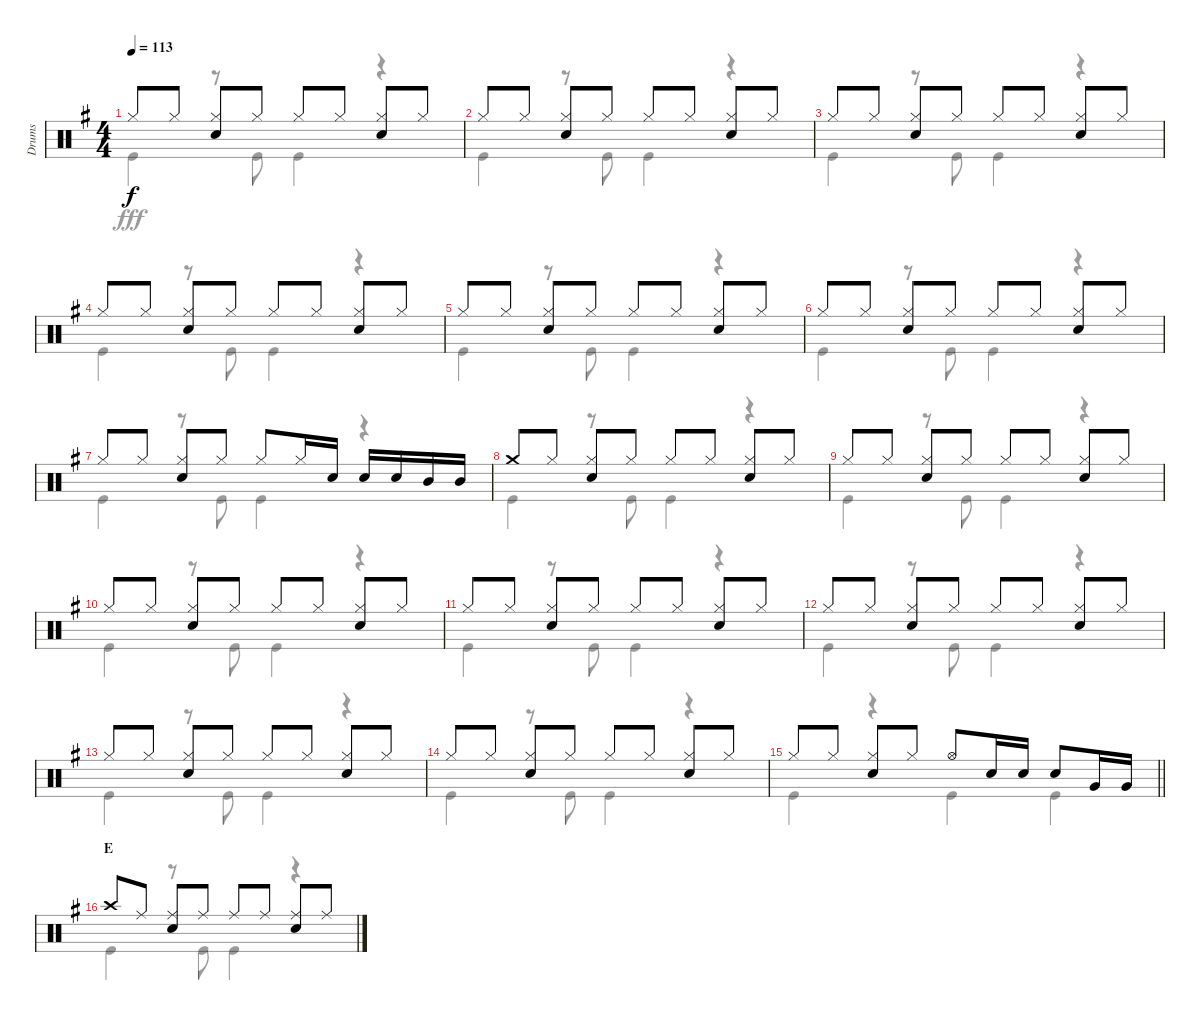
\track ("Drums" "Drums") {instrument percussion}
\staff {score}
\articulation defaults
\voice
\ts (4 4)
\tempo 113
\clef neutral
\ks g "Hi-Hat (closed)".8{dy f} "Hi-Hat (closed)".8
("Hi-Hat (closed)" "Snare (hit) 2").8 "Hi-Hat (closed)".8 "Hi-Hat (closed)".8 "Hi-Hat (closed)".8 ("Hi-Hat (closed)" "Snare (hit) 2").8 "Hi-Hat (closed)".8 |
"Hi-Hat (closed)".8 "Hi-Hat (closed)".8 ("Hi-Hat (closed)" "Snare (hit) 2").8 "Hi-Hat (closed)".8 "Hi-Hat (closed)".8 "Hi-Hat (closed)".8 ("Hi-Hat (closed)" "Snare (hit) 2").8 "Hi-Hat (closed)".8 |
"Hi-Hat (closed)".8 "Hi-Hat (closed)".8 ("Hi-Hat (closed)" "Snare (hit) 2").8 "Hi-Hat (closed)".8 "Hi-Hat (closed)".8 "Hi-Hat (closed)".8 ("Hi-Hat (closed)" "Snare (hit) 2").8 "Hi-Hat (closed)".8 |
"Hi-Hat (closed)".8 "Hi-Hat (closed)".8 ("Hi-Hat (closed)" "Snare (hit) 2").8 "Hi-Hat (closed)".8 "Hi-Hat (closed)".8 "Hi-Hat (closed)".8 ("Hi-Hat (closed)" "Snare (hit) 2").8 "Hi-Hat (closed)".8 |
"Hi-Hat (closed)".8 "Hi-Hat (closed)".8 ("Hi-Hat (closed)" "Snare (hit) 2").8 "Hi-Hat (closed)".8 "Hi-Hat (closed)".8 "Hi-Hat (closed)".8 ("Hi-Hat (closed)" "Snare (hit) 2").8 "Hi-Hat (closed)".8 |
"Hi-Hat (closed)".8 "Hi-Hat (closed)".8 ("Hi-Hat (closed)" "Snare (hit) 2").8 "Hi-Hat (closed)".8 "Hi-Hat (closed)".8 "Hi-Hat (closed)".8 ("Hi-Hat (closed)" "Snare (hit) 2").8 "Hi-Hat (closed)".8 |
"Hi-Hat (closed)".8 "Hi-Hat (closed)".8 ("Hi-Hat (closed)" "Snare (hit) 2").8 "Hi-Hat (closed)".8 "Hi-Hat (closed)".8 "Hi-Hat (closed)".16 "Snare (hit) 2".16 "Snare (hit) 2".16 "Snare (hit) 2".16 "Mid Tom (hit)".16 "Mid Tom (hit)".16 |
"Crash medium (hit)".8 "Hi-Hat (closed)".8 ("Hi-Hat (closed)" "Snare (hit) 2").8 "Hi-Hat (closed)".8 "Hi-Hat (closed)".8 "Hi-Hat (closed)".8 ("Hi-Hat (closed)" "Snare (hit) 2").8 "Hi-Hat (closed)".8 |
"Hi-Hat (closed)".8 "Hi-Hat (closed)".8 ("Hi-Hat (closed)" "Snare (hit) 2").8 "Hi-Hat (closed)".8 "Hi-Hat (closed)".8 "Hi-Hat (closed)".8 ("Hi-Hat (closed)" "Snare (hit) 2").8 "Hi-Hat (closed)".8 |
"Hi-Hat (closed)".8 "Hi-Hat (closed)".8 ("Hi-Hat (closed)" "Snare (hit) 2").8 "Hi-Hat (closed)".8 "Hi-Hat (closed)".8 "Hi-Hat (closed)".8 ("Hi-Hat (closed)" "Snare (hit) 2").8 "Hi-Hat (closed)".8 |
"Hi-Hat (closed)".8 "Hi-Hat (closed)".8 ("Hi-Hat (closed)" "Snare (hit) 2").8 "Hi-Hat (closed)".8 "Hi-Hat (closed)".8 "Hi-Hat (closed)".8 ("Hi-Hat (closed)" "Snare (hit) 2").8 "Hi-Hat (closed)".8 |
"Hi-Hat (closed)".8 "Hi-Hat (closed)".8 ("Hi-Hat (closed)" "Snare (hit) 2").8 "Hi-Hat (closed)".8 "Hi-Hat (closed)".8 "Hi-Hat (closed)".8 ("Hi-Hat (closed)" "Snare (hit) 2").8 "Hi-Hat (closed)".8 |
"Hi-Hat (closed)".8 "Hi-Hat (closed)".8 ("Hi-Hat (closed)" "Snare (hit) 2").8 "Hi-Hat (closed)".8 "Hi-Hat (closed)".8 "Hi-Hat (closed)".8 ("Hi-Hat (closed)" "Snare (hit) 2").8 "Hi-Hat (closed)".8 |
"Hi-Hat (closed)".8 "Hi-Hat (closed)".8 ("Hi-Hat (closed)" "Snare (hit) 2").8 "Hi-Hat (closed)".8 "Hi-Hat (closed)".8 "Hi-Hat (closed)".8 ("Hi-Hat (closed)" "Snare (hit) 2").8 "Hi-Hat (closed)".8 |
\barLineRight lightlight "Hi-Hat (closed)".8 "Hi-Hat (closed)".8
("Hi-Hat (closed)" "Snare (hit) 2").8 "Hi-Hat (closed)".8 "Hi-Hat (open)".8 "Snare (hit) 2".16 "Snare (hit) 2".16 "Snare (hit) 2".8 "Very Low Tom (hit)".16 "Very Low Tom (hit)".16 |
\section ("" "E")
"Crash high (hit)".8 "Ride (middle)".8 ("Ride (middle)" "Snare (hit) 2").8 "Ride (middle)".8 "Ride (middle)".8 "Ride (middle)".8 ("Ride (middle)" "Snare (hit) 2").8 "Ride (middle)".8
\voice
\clef neutral
\ottava regular
\simile none
\ks g "Kick (hit)".4{dy fff}
r.8 "Kick (hit)".8 "Kick (hit)".4 r.4 |
"Kick (hit)".4 r.8 "Kick (hit)".8 "Kick (hit)".4 r.4 |
"Kick (hit)".4 r.8 "Kick (hit)".8 "Kick (hit)".4 r.4 |
"Kick (hit)".4 r.8 "Kick (hit)".8 "Kick (hit)".4 r.4 |
"Kick (hit)".4 r.8 "Kick (hit)".8 "Kick (hit)".4 r.4 |
"Kick (hit)".4 r.8 "Kick (hit)".8 "Kick (hit)".4 r.4 |
"Kick (hit)".4 r.8 "Kick (hit)".8 "Kick (hit)".4 r.4 |
"Kick (hit)".4 r.8 "Kick (hit)".8 "Kick (hit)".4 r.4 |
"Kick (hit)".4 r.8 "Kick (hit)".8 "Kick (hit)".4 r.4 |
"Kick (hit)".4 r.8 "Kick (hit)".8 "Kick (hit)".4 r.4 |
"Kick (hit)".4 r.8 "Kick (hit)".8 "Kick (hit)".4 r.4 |
"Kick (hit)".4 r.8 "Kick (hit)".8 "Kick (hit)".4 r.4 |
"Kick (hit)".4 r.8 "Kick (hit)".8 "Kick (hit)".4 r.4 |
"Kick (hit)".4 r.8 "Kick (hit)".8 "Kick (hit)".4 r.4 |
\barLineRight lightlight "Kick (hit)".4
r.4 "Kick (hit)".4 "Kick (hit)".4 |
"Kick (hit)".4 r.8 "Kick (hit)".8 "Kick (hit)".4 r.4
